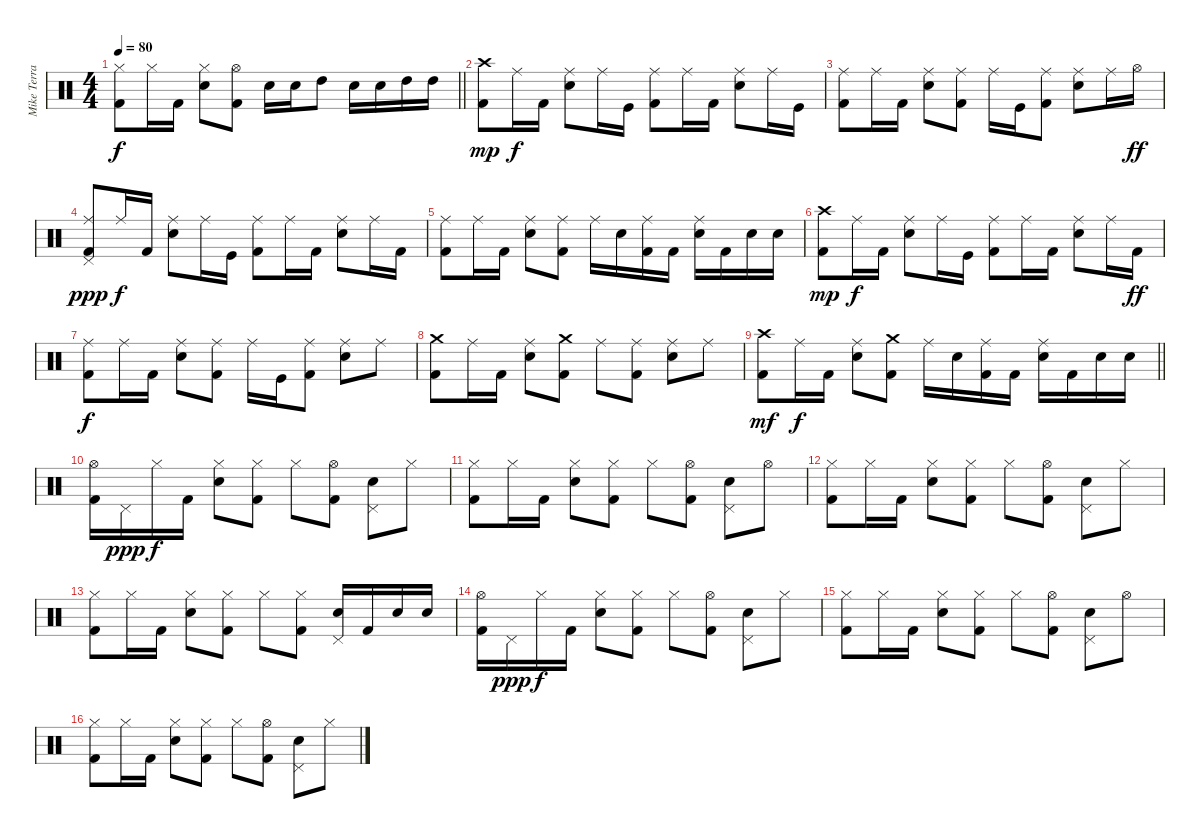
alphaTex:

\track ("Mike Terrana" "Mike Terra") {instrument percussion}
\staff {score}
\articulation defaults
\ts (4 4)
\tempo 80
\clef neutral
\barLineRight lightlight
\ks c
("Hi-Hat (closed)" "Kick (hit) 2").8{dy f} "Hi-Hat (closed)".16 "Kick (hit) 2".16 ("Hi-Hat (closed)" "Electric Snare (hit)").8 ("Hi-Hat (open)" "Kick (hit) 2").8 "Electric Snare (hit)".16 "Electric Snare (hit)".16 "High Tom (hit)".8 "Electric Snare (hit)".16 "Electric Snare (hit)".16 "High Tom (hit)".16 "High Tom (hit)".16 |
("Crash high (hit)" "Kick (hit) 2").8{dy mp} "Ride (middle)".16{dy f} "Kick (hit) 2".16 ("Ride (middle)" "Electric Snare (hit)").8 "Ride (middle)".16 "Kick (hit)".16 ("Ride (middle)" "Kick (hit) 2").8 "Ride (middle)".16 "Kick (hit) 2".16 ("Ride (middle)" "Electric Snare (hit)").8 "Ride (middle)".16 "Kick (hit)".16 |
("Ride (middle)" "Kick (hit) 2").8 "Ride (middle)".16 "Kick (hit) 2".16 ("Ride (middle)" "Electric Snare (hit)").8 ("Ride (middle)" "Kick (hit) 2").8 "Ride (middle)".16 "Kick (hit)".16 ("Ride (middle)" "Kick (hit) 2").8 ("Ride (middle)" "Electric Snare (hit)").8 "Ride (middle)".16 "Hi-Hat (open)".16{dy ff} |
("Ride (middle)" "Pedal Hi-Hat (hit)" "Kick (hit) 2").8{dy ppp} "Ride (middle)".16{dy f} "Kick (hit) 2".16 ("Ride (middle)" "Electric Snare (hit)").8 "Ride (middle)".16 "Kick (hit)".16 ("Ride (middle)" "Kick (hit) 2").8 "Ride (middle)".16 "Kick (hit) 2".16 ("Ride (middle)" "Electric Snare (hit)").8 "Ride (middle)".16 "Kick (hit) 2".16 |
("Ride (middle)" "Kick (hit) 2").8 "Ride (middle)".16 "Kick (hit) 2".16 ("Ride (middle)" "Electric Snare (hit)").8 ("Ride (middle)" "Kick (hit) 2").8 "Ride (middle)".16 "Electric Snare (hit)".16 ("Ride (middle)" "Kick (hit) 2").16 "Kick (hit) 2".16 ("Ride (middle)" "Electric Snare (hit)").16 "Kick (hit) 2".16 "Electric Snare (hit)".16 "Electric Snare (hit)".16 |
("Crash high (hit)" "Kick (hit) 2").8{dy mp} "Ride (middle)".16{dy f} "Kick (hit) 2".16 ("Ride (middle)" "Electric Snare (hit)").8 "Ride (middle)".16 "Kick (hit)".16 ("Ride (middle)" "Kick (hit) 2").8 "Ride (middle)".16 "Kick (hit) 2".16 ("Ride (middle)" "Electric Snare (hit)").8 "Ride (middle)".16 "Kick (hit) 2".16{dy ff} |
("Ride (middle)" "Kick (hit) 2").8{dy f} "Ride (middle)".16 "Kick (hit) 2".16 ("Ride (middle)" "Electric Snare (hit)").8 ("Ride (middle)" "Kick (hit) 2").8 "Ride (middle)".16 "Kick (hit)".16 ("Ride (middle)" "Kick (hit) 2").8 ("Ride (middle)" "Electric Snare (hit)").8 "Ride (middle)".8 |
("Crash medium (hit)" "Kick (hit) 2").8 "Ride (middle)".16 "Kick (hit) 2".16 ("Ride (middle)" "Electric Snare (hit)").8 ("Crash medium (hit)" "Kick (hit) 2").8 "Ride (middle)".8 ("Ride (middle)" "Kick (hit) 2").8 ("Ride (middle)" "Electric Snare (hit)").8 "Ride (middle)".8 |
\barLineRight lightlight
("Crash high (hit)" "Kick (hit) 2").8{dy mf} "Ride (middle)".16{dy f} "Kick (hit) 2".16 ("Ride (middle)" "Electric Snare (hit)").8 ("Crash medium (hit)" "Kick (hit) 2").8 "Ride (middle)".16 "Electric Snare (hit)".16 ("Ride (middle)" "Kick (hit) 2").16 "Kick (hit) 2".16 ("Ride (middle)" "Electric Snare (hit)").16 "Kick (hit) 2".16 "Electric Snare (hit)".16 "Electric Snare (hit)".16 |
("Hi-Hat (open)" "Kick (hit) 2").16 "Pedal Hi-Hat (hit)".16{dy ppp} "Hi-Hat (closed)".16{dy f} "Kick (hit) 2".16 ("Hi-Hat (closed)" "Electric Snare (hit)").8 ("Hi-Hat (closed)" "Kick (hit) 2").8 "Hi-Hat (closed)".8 ("Hi-Hat (open)" "Kick (hit) 2").8 ("Pedal Hi-Hat (hit)" "Electric Snare (hit)").8 "Hi-Hat (closed)".8 |
("Hi-Hat (closed)" "Kick (hit) 2").8 "Hi-Hat (closed)".16 "Kick (hit) 2".16 ("Hi-Hat (closed)" "Electric Snare (hit)").8 ("Hi-Hat (closed)" "Kick (hit) 2").8 "Hi-Hat (closed)".8 ("Hi-Hat (open)" "Kick (hit) 2").8 ("Pedal Hi-Hat (hit)" "Electric Snare (hit)").8 "Hi-Hat (open)".8 |
("Hi-Hat (closed)" "Kick (hit) 2").8 "Hi-Hat (closed)".16 "Kick (hit) 2".16 ("Hi-Hat (closed)" "Electric Snare (hit)").8 ("Hi-Hat (closed)" "Kick (hit) 2").8 "Hi-Hat (closed)".8 ("Hi-Hat (open)" "Kick (hit) 2").8 ("Pedal Hi-Hat (hit)" "Electric Snare (hit)").8 "Hi-Hat (closed)".8 |
("Hi-Hat (closed)" "Kick (hit) 2").8 "Hi-Hat (closed)".16 "Kick (hit) 2".16 ("Hi-Hat (closed)" "Electric Snare (hit)").8 ("Hi-Hat (closed)" "Kick (hit) 2").8 "Hi-Hat (closed)".8 ("Hi-Hat (closed)" "Kick (hit) 2").8 ("Pedal Hi-Hat (hit)" "Electric Snare (hit)").16 "Kick (hit) 2".16 "Electric Snare (hit)".16 "Electric Snare (hit)".16 |
("Hi-Hat (open)" "Kick (hit) 2").16 "Pedal Hi-Hat (hit)".16{dy ppp} "Hi-Hat (closed)".16{dy f} "Kick (hit) 2".16 ("Hi-Hat (closed)" "Electric Snare (hit)").8 ("Hi-Hat (closed)" "Kick (hit) 2").8 "Hi-Hat (closed)".8 ("Hi-Hat (open)" "Kick (hit) 2").8 ("Pedal Hi-Hat (hit)" "Electric Snare (hit)").8 "Hi-Hat (closed)".8 |
("Hi-Hat (closed)" "Kick (hit) 2").8 "Hi-Hat (closed)".16 "Kick (hit) 2".16 ("Hi-Hat (closed)" "Electric Snare (hit)").8 ("Hi-Hat (closed)" "Kick (hit) 2").8 "Hi-Hat (closed)".8 ("Hi-Hat (open)" "Kick (hit) 2").8 ("Pedal Hi-Hat (hit)" "Electric Snare (hit)").8 "Hi-Hat (open)".8 |
("Hi-Hat (closed)" "Kick (hit) 2").8 "Hi-Hat (closed)".16 "Kick (hit) 2".16 ("Hi-Hat (closed)" "Electric Snare (hit)").8 ("Hi-Hat (closed)" "Kick (hit) 2").8 "Hi-Hat (closed)".8 ("Hi-Hat (open)" "Kick (hit) 2").8 ("Pedal Hi-Hat (hit)" "Electric Snare (hit)").8 "Hi-Hat (closed)".8
